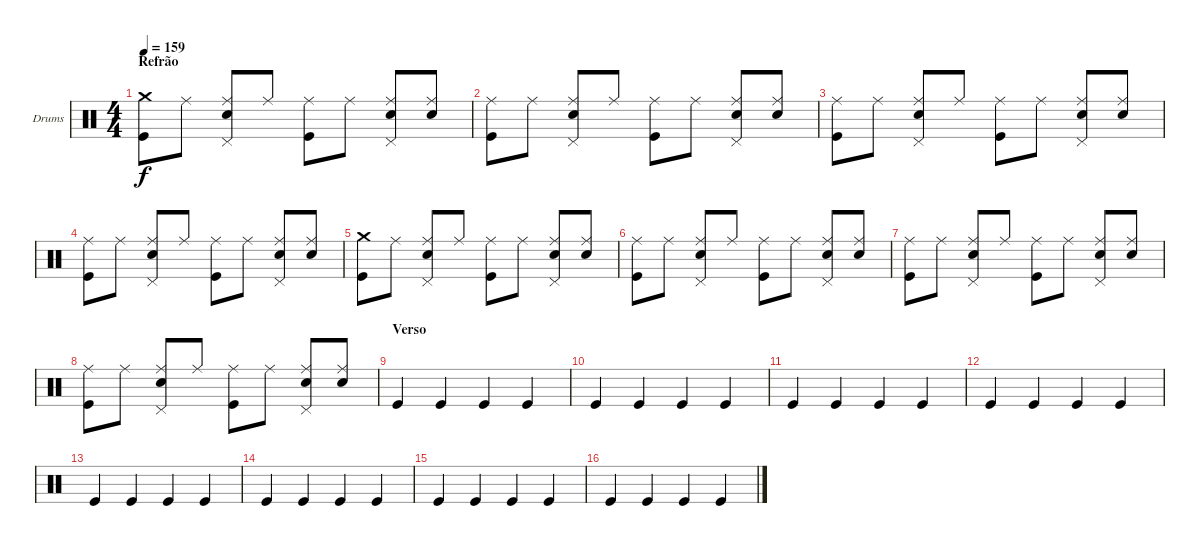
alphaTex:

\bracketExtendMode groupsimilarinstruments
\firstSystemTrackNameOrientation horizontal
\otherSystemsTrackNameOrientation horizontal
\track ("Drumkit" "Drums") {instrument percussion}
\staff {score}
\articulation defaults
\ts (4 4)
\section ("" "Refrão")
\tempo 159
\clef neutral
\scale
0.333333
\ks c
("Kick (hit)" "Crash medium (hit)").8{dy f} "Ride (middle)".8 ("Ride (middle)" "Snare (hit) 2" "Pedal Hi-Hat (hit)").8 "Ride (middle)".8 ("Ride (middle)" "Kick (hit)").8 "Ride (middle)".8 ("Ride (middle)" "Snare (hit) 2" "Pedal Hi-Hat (hit)").8 ("Ride (middle)" "Snare (hit) 2").8 |
\scale
0.333333 ("Ride (middle)" "Kick (hit)").8 "Ride (middle)".8 ("Ride (middle)" "Snare (hit) 2" "Pedal Hi-Hat (hit)").8 "Ride (middle)".8 ("Ride (middle)" "Kick (hit)").8 "Ride (middle)".8 ("Ride (middle)" "Snare (hit) 2" "Pedal Hi-Hat (hit)").8 ("Ride (middle)" "Snare (hit) 2").8 |
\scale
0.333333 ("Ride (middle)" "Kick (hit)").8 "Ride (middle)".8 ("Ride (middle)" "Snare (hit) 2" "Pedal Hi-Hat (hit)").8 "Ride (middle)".8 ("Ride (middle)" "Kick (hit)").8 "Ride (middle)".8 ("Ride (middle)" "Snare (hit) 2" "Pedal Hi-Hat (hit)").8 ("Ride (middle)" "Snare (hit) 2").8 |
\scale
0.333333 ("Ride (middle)" "Kick (hit)").8 "Ride (middle)".8 ("Ride (middle)" "Snare (hit) 2" "Pedal Hi-Hat (hit)").8 "Ride (middle)".8 ("Ride (middle)" "Kick (hit)").8 "Ride (middle)".8 ("Ride (middle)" "Snare (hit) 2" "Pedal Hi-Hat (hit)").8 ("Ride (middle)" "Snare (hit) 2").8 |
\scale
0.333333 ("Kick (hit)" "Crash medium (hit)").8 "Ride (middle)".8 ("Ride (middle)" "Snare (hit) 2" "Pedal Hi-Hat (hit)").8 "Ride (middle)".8 ("Ride (middle)" "Kick (hit)").8 "Ride (middle)".8 ("Ride (middle)" "Snare (hit) 2" "Pedal Hi-Hat (hit)").8 ("Ride (middle)" "Snare (hit) 2").8 |
\scale
0.333333 ("Ride (middle)" "Kick (hit)").8 "Ride (middle)".8 ("Ride (middle)" "Snare (hit) 2" "Pedal Hi-Hat (hit)").8 "Ride (middle)".8 ("Ride (middle)" "Kick (hit)").8 "Ride (middle)".8 ("Ride (middle)" "Snare (hit) 2" "Pedal Hi-Hat (hit)").8 ("Ride (middle)" "Snare (hit) 2").8 |
\scale
0.333333 ("Ride (middle)" "Kick (hit)").8 "Ride (middle)".8 ("Ride (middle)" "Snare (hit) 2" "Pedal Hi-Hat (hit)").8 "Ride (middle)".8 ("Ride (middle)" "Kick (hit)").8 "Ride (middle)".8 ("Ride (middle)" "Snare (hit) 2" "Pedal Hi-Hat (hit)").8 ("Ride (middle)" "Snare (hit) 2").8 |
\scale
0.333333 ("Ride (middle)" "Kick (hit)").8 "Ride (middle)".8 ("Ride (middle)" "Snare (hit) 2" "Pedal Hi-Hat (hit)").8 "Ride (middle)".8 ("Ride (middle)" "Kick (hit)").8 "Ride (middle)".8 ("Ride (middle)" "Snare (hit) 2" "Pedal Hi-Hat (hit)").8 ("Ride (middle)" "Snare (hit) 2").8 |
\section ("" "Verso")
\scale
0.333333 "Kick (hit)".4 "Kick (hit)".4 "Kick (hit)".4 "Kick (hit)".4 |
\scale
0.333333 "Kick (hit)".4 "Kick (hit)".4 "Kick (hit)".4 "Kick (hit)".4 |
\scale
0.333333 "Kick (hit)".4 "Kick (hit)".4 "Kick (hit)".4 "Kick (hit)".4 |
\scale
0.333333 "Kick (hit)".4 "Kick (hit)".4 "Kick (hit)".4 "Kick (hit)".4 |
\scale
0.333333 "Kick (hit)".4 "Kick (hit)".4 "Kick (hit)".4 "Kick (hit)".4 |
\scale
0.333333 "Kick (hit)".4 "Kick (hit)".4 "Kick (hit)".4 "Kick (hit)".4 |
\scale
0.333333 "Kick (hit)".4 "Kick (hit)".4 "Kick (hit)".4 "Kick (hit)".4 |
\scale
0.333333 "Kick (hit)".4 "Kick (hit)".4 "Kick (hit)".4 "Kick (hit)".4
